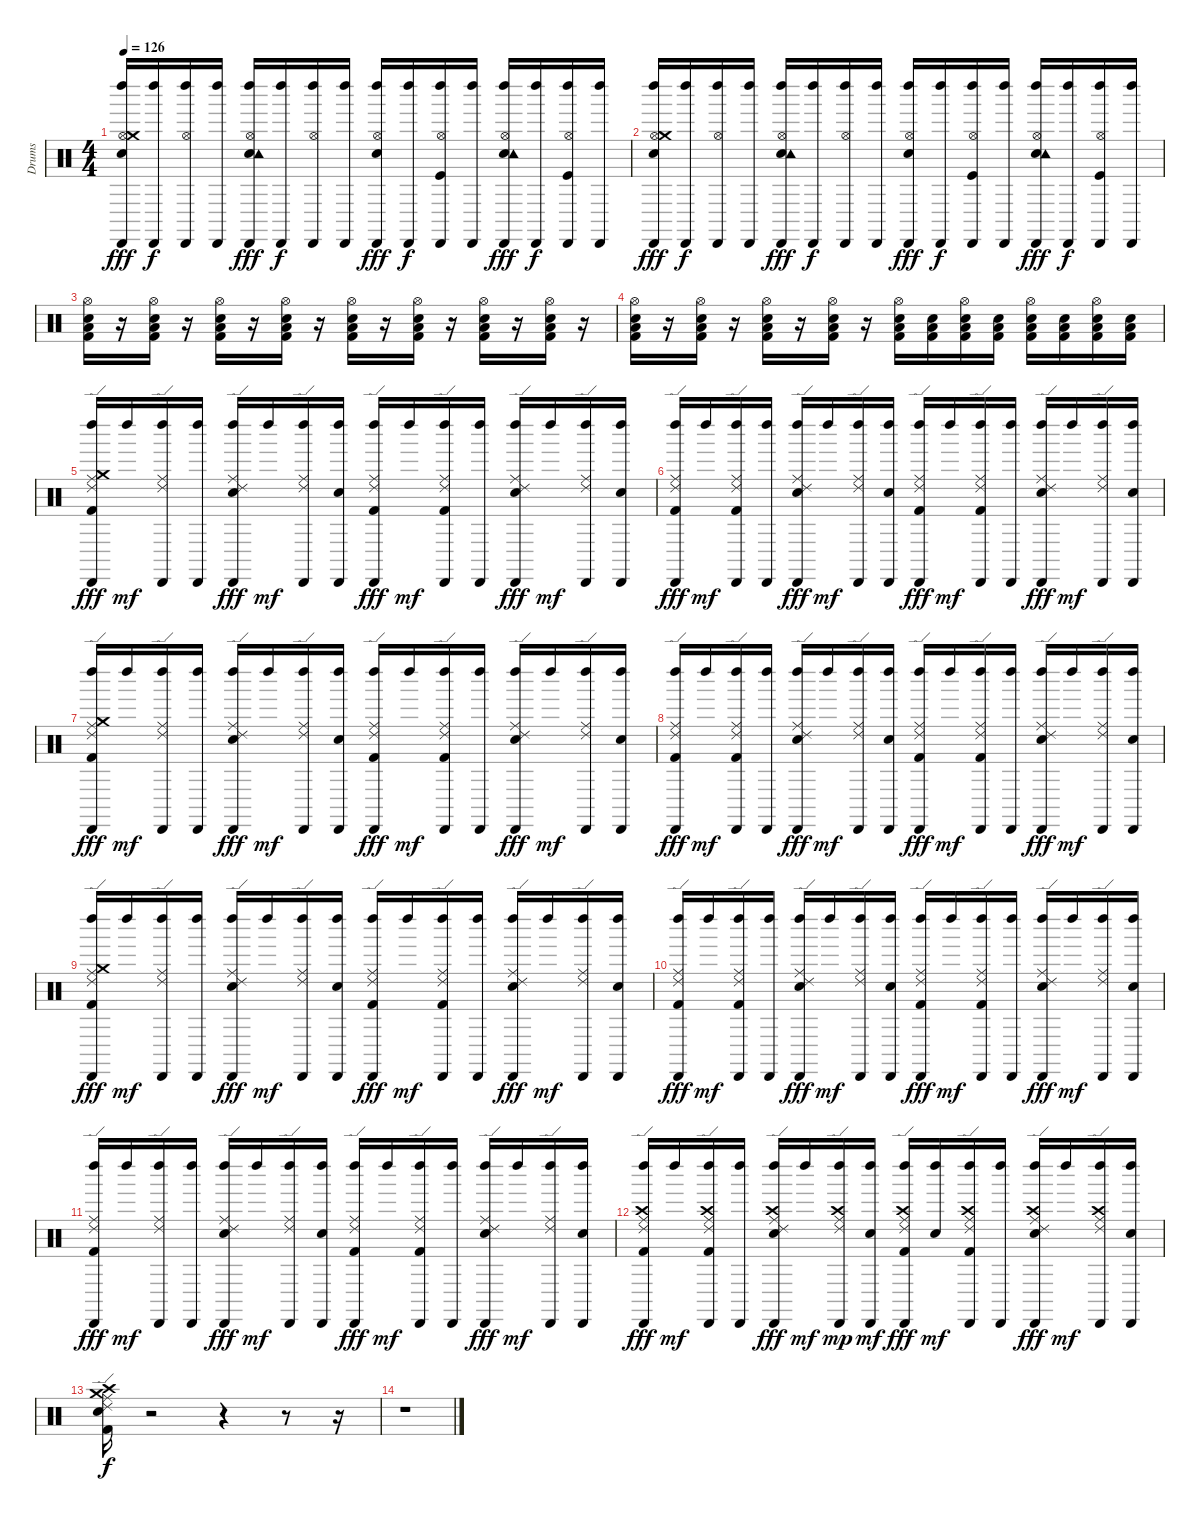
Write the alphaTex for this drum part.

\track ("Drums" "Drums") {instrument percussion}
\staff {score}
\articulation defaults
\ts (4 4)
\tempo 126
\clef neutral
\ks c
("Electric Snare (hit)" "Left Maraca (hit)" "Hi-Hat (open)" "Crash medium (hit)" "Cabasa (hit)").16{dy fff} ("Cabasa (hit)" "Left Maraca (hit)").16{dy f} ("Left Maraca (hit)" "Hi-Hat (open)" "Cabasa (hit)").16 ("Left Maraca (hit)" "Cabasa (hit)").16 ("Electric Snare (hit)" "Tambourine (hit)" "Cabasa (hit)" "Hi-Hat (open)" "Left Maraca (hit)").16{dy fff} ("Left Maraca (hit)" "Cabasa (hit)").16{dy f} ("Left Maraca (hit)" "Cabasa (hit)" "Hi-Hat (open)").16 ("Left Maraca (hit)" "Cabasa (hit)").16 ("Electric Snare (hit)" "Cabasa (hit)" "Hi-Hat (open)" "Left Maraca (hit)").16{dy fff} ("Left Maraca (hit)" "Cabasa (hit)").16{dy f} ("Kick (hit)" "Left Maraca (hit)" "Cabasa (hit)" "Hi-Hat (open)").16 ("Left Maraca (hit)" "Cabasa (hit)").16 ("Electric Snare (hit)" "Left Maraca (hit)" "Hi-Hat (open)" "Cabasa (hit)" "Tambourine (hit)").16{dy fff} ("Left Maraca (hit)" "Cabasa (hit)").16{dy f} ("Kick (hit)" "Hi-Hat (open)" "Cabasa (hit)" "Left Maraca (hit)").16 ("Left Maraca (hit)" "Cabasa (hit)").16 |
("Electric Snare (hit)" "Left Maraca (hit)" "Hi-Hat (open)" "Crash medium (hit)" "Cabasa (hit)").16{dy fff} ("Cabasa (hit)" "Left Maraca (hit)").16{dy f} ("Left Maraca (hit)" "Hi-Hat (open)" "Cabasa (hit)").16 ("Left Maraca (hit)" "Cabasa (hit)").16 ("Electric Snare (hit)" "Tambourine (hit)" "Cabasa (hit)" "Hi-Hat (open)" "Left Maraca (hit)").16{dy fff} ("Left Maraca (hit)" "Cabasa (hit)").16{dy f} ("Left Maraca (hit)" "Cabasa (hit)" "Hi-Hat (open)").16 ("Left Maraca (hit)" "Cabasa (hit)").16 ("Electric Snare (hit)" "Cabasa (hit)" "Hi-Hat (open)" "Left Maraca (hit)").16{dy fff} ("Left Maraca (hit)" "Cabasa (hit)").16{dy f} ("Kick (hit)" "Left Maraca (hit)" "Cabasa (hit)" "Hi-Hat (open)").16 ("Left Maraca (hit)" "Cabasa (hit)").16 ("Electric Snare (hit)" "Left Maraca (hit)" "Hi-Hat (open)" "Cabasa (hit)" "Tambourine (hit)").16{dy fff} ("Left Maraca (hit)" "Cabasa (hit)").16{dy f} ("Kick (hit)" "Hi-Hat (open)" "Cabasa (hit)" "Left Maraca (hit)").16 ("Left Maraca (hit)" "Cabasa (hit)").16 |
("Electric Snare (hit)" "Kick (hit) 2" "Hi-Hat (open)" "Low Tom (hit)").16 r.16 ("Kick (hit) 2" "Hi-Hat (open)" "Electric Snare (hit)" "Low Tom (hit)").16{volume 8} r.16 ("Electric Snare (hit)" "Kick (hit) 2" "Low Tom (hit)" "Hi-Hat (open)").16{volume 8} r.16 ("Hi-Hat (open)" "Kick (hit) 2" "Low Tom (hit)" "Electric Snare (hit)").16{volume 8} r.16 ("Hi-Hat (open)" "Low Tom (hit)" "Electric Snare (hit)" "Kick (hit) 2").16{volume 9} r.16 ("Low Tom (hit)" "Electric Snare (hit)" "Kick (hit) 2" "Hi-Hat (open)").16{volume 9} r.16 ("Kick (hit) 2" "Hi-Hat (open)" "Low Tom (hit)" "Electric Snare (hit)").16{volume 9} r.16 ("Electric Snare (hit)" "Kick (hit) 2" "Hi-Hat (open)" "Low Tom (hit)").16{volume 10} r.16 |
("Electric Snare (hit)" "Kick (hit) 2" "Hi-Hat (open)" "Low Tom (hit)").16{volume 10} r.16 ("Kick (hit) 2" "Hi-Hat (open)" "Electric Snare (hit)" "Low Tom (hit)").16{volume 10} r.16 ("Electric Snare (hit)" "Kick (hit) 2" "Low Tom (hit)" "Hi-Hat (open)").16{volume 11} r.16 ("Hi-Hat (open)" "Kick (hit) 2" "Low Tom (hit)" "Electric Snare (hit)").16{volume 11} r.16 ("Hi-Hat (open)" "Low Tom (hit)" "Electric Snare (hit)" "Kick (hit) 2").16{volume 11} ("Low Tom (hit)" "Kick (hit) 2" "Electric Snare (hit)").16{volume 11} ("Low Tom (hit)" "Electric Snare (hit)" "Kick (hit) 2" "Hi-Hat (open)").16{volume 12} ("Low Tom (hit)" "Kick (hit) 2" "Electric Snare (hit)").16{volume 12} ("Kick (hit) 2" "Hi-Hat (open)" "Low Tom (hit)" "Electric Snare (hit)").16{volume 12} ("Low Tom (hit)" "Kick (hit) 2" "Electric Snare (hit)").16{volume 12} ("Electric Snare (hit)" "Kick (hit) 2" "Hi-Hat (open)" "Low Tom (hit)").16{volume 12} ("Low Tom (hit)" "Kick (hit) 2" "Electric Snare (hit)").16{volume 12} |
("Crash medium (hit)" "Cabasa (hit)" "Kick (hit) 2" "Left Maraca (hit)" "Ride (middle)" "Ride (edge) 2").16{dy fff volume 12} "Left Maraca (hit)".16{dy mf} ("Cabasa (hit)" "Left Maraca (hit)" "Ride (edge) 2" "Ride (middle)").16 ("Cabasa (hit)" "Left Maraca (hit)").16 ("Left Maraca (hit)" "Ride (edge) 2" "Ride (middle)" "Cabasa (hit)" "Electric Snare (hit)").16{dy fff} "Left Maraca (hit)".16{dy mf} ("Ride (edge) 2" "Cabasa (hit)" "Left Maraca (hit)" "Ride (middle)").16 ("Electric Snare (hit)" "Cabasa (hit)" "Left Maraca (hit)").16 ("Kick (hit) 2" "Cabasa (hit)" "Ride (middle)" "Left Maraca (hit)" "Ride (edge) 2").16{dy fff} "Left Maraca (hit)".16{dy mf} ("Cabasa (hit)" "Ride (middle)" "Ride (edge) 2" "Left Maraca (hit)" "Kick (hit) 2").16 ("Left Maraca (hit)" "Cabasa (hit)").16 ("Ride (edge) 2" "Electric Snare (hit)" "Left Maraca (hit)" "Cabasa (hit)" "Ride (middle)").16{dy fff} "Left Maraca (hit)".16{dy mf} ("Left Maraca (hit)" "Cabasa (hit)" "Ride (middle)" "Ride (edge) 2").16 ("Left Maraca (hit)" "Cabasa (hit)" "Electric Snare (hit)").16 |
("Cabasa (hit)" "Kick (hit) 2" "Left Maraca (hit)" "Ride (middle)" "Ride (edge) 2").16{dy fff} "Left Maraca (hit)".16{dy mf} ("Kick (hit) 2" "Cabasa (hit)" "Left Maraca (hit)" "Ride (edge) 2" "Ride (middle)").16 ("Cabasa (hit)" "Left Maraca (hit)").16 ("Left Maraca (hit)" "Ride (edge) 2" "Ride (middle)" "Cabasa (hit)" "Electric Snare (hit)").16{dy fff} "Left Maraca (hit)".16{dy mf} ("Ride (edge) 2" "Cabasa (hit)" "Left Maraca (hit)" "Ride (middle)").16 ("Electric Snare (hit)" "Cabasa (hit)" "Left Maraca (hit)").16 ("Kick (hit) 2" "Cabasa (hit)" "Ride (middle)" "Left Maraca (hit)" "Ride (edge) 2").16{dy fff} "Left Maraca (hit)".16{dy mf} ("Cabasa (hit)" "Ride (middle)" "Ride (edge) 2" "Left Maraca (hit)" "Kick (hit) 2").16 ("Left Maraca (hit)" "Cabasa (hit)").16 ("Ride (edge) 2" "Electric Snare (hit)" "Left Maraca (hit)" "Cabasa (hit)" "Ride (middle)").16{dy fff} "Left Maraca (hit)".16{dy mf} ("Left Maraca (hit)" "Cabasa (hit)" "Ride (middle)" "Ride (edge) 2").16 ("Left Maraca (hit)" "Cabasa (hit)" "Electric Snare (hit)").16 |
("Crash medium (hit)" "Cabasa (hit)" "Kick (hit) 2" "Left Maraca (hit)" "Ride (middle)" "Ride (edge) 2").16{dy fff} "Left Maraca (hit)".16{dy mf} ("Cabasa (hit)" "Left Maraca (hit)" "Ride (edge) 2" "Ride (middle)").16 ("Cabasa (hit)" "Left Maraca (hit)").16 ("Left Maraca (hit)" "Ride (edge) 2" "Ride (middle)" "Cabasa (hit)" "Electric Snare (hit)").16{dy fff} "Left Maraca (hit)".16{dy mf} ("Ride (edge) 2" "Cabasa (hit)" "Left Maraca (hit)" "Ride (middle)").16 ("Electric Snare (hit)" "Cabasa (hit)" "Left Maraca (hit)").16 ("Kick (hit) 2" "Cabasa (hit)" "Ride (middle)" "Left Maraca (hit)" "Ride (edge) 2").16{dy fff} "Left Maraca (hit)".16{dy mf} ("Cabasa (hit)" "Ride (middle)" "Ride (edge) 2" "Left Maraca (hit)" "Kick (hit) 2").16 ("Left Maraca (hit)" "Cabasa (hit)").16 ("Ride (edge) 2" "Electric Snare (hit)" "Left Maraca (hit)" "Cabasa (hit)" "Ride (middle)").16{dy fff} "Left Maraca (hit)".16{dy mf} ("Left Maraca (hit)" "Cabasa (hit)" "Ride (middle)" "Ride (edge) 2").16 ("Left Maraca (hit)" "Cabasa (hit)" "Electric Snare (hit)").16 |
("Cabasa (hit)" "Kick (hit) 2" "Left Maraca (hit)" "Ride (middle)" "Ride (edge) 2").16{dy fff} "Left Maraca (hit)".16{dy mf} ("Kick (hit) 2" "Cabasa (hit)" "Left Maraca (hit)" "Ride (edge) 2" "Ride (middle)").16 ("Cabasa (hit)" "Left Maraca (hit)").16 ("Left Maraca (hit)" "Ride (edge) 2" "Ride (middle)" "Cabasa (hit)" "Electric Snare (hit)").16{dy fff} "Left Maraca (hit)".16{dy mf} ("Ride (edge) 2" "Cabasa (hit)" "Left Maraca (hit)" "Ride (middle)").16 ("Electric Snare (hit)" "Cabasa (hit)" "Left Maraca (hit)").16 ("Kick (hit) 2" "Cabasa (hit)" "Ride (middle)" "Left Maraca (hit)" "Ride (edge) 2").16{dy fff} "Left Maraca (hit)".16{dy mf} ("Cabasa (hit)" "Ride (middle)" "Ride (edge) 2" "Left Maraca (hit)" "Kick (hit) 2").16 ("Left Maraca (hit)" "Cabasa (hit)").16 ("Ride (edge) 2" "Electric Snare (hit)" "Left Maraca (hit)" "Cabasa (hit)" "Ride (middle)").16{dy fff} "Left Maraca (hit)".16{dy mf} ("Left Maraca (hit)" "Cabasa (hit)" "Ride (middle)" "Ride (edge) 2").16 ("Left Maraca (hit)" "Cabasa (hit)" "Electric Snare (hit)").16 |
("Crash medium (hit)" "Cabasa (hit)" "Kick (hit) 2" "Left Maraca (hit)" "Ride (middle)" "Ride (edge) 2").16{dy fff} "Left Maraca (hit)".16{dy mf} ("Cabasa (hit)" "Left Maraca (hit)" "Ride (edge) 2" "Ride (middle)").16 ("Cabasa (hit)" "Left Maraca (hit)").16 ("Left Maraca (hit)" "Ride (edge) 2" "Ride (middle)" "Cabasa (hit)" "Electric Snare (hit)").16{dy fff} "Left Maraca (hit)".16{dy mf} ("Ride (edge) 2" "Cabasa (hit)" "Left Maraca (hit)" "Ride (middle)").16 ("Electric Snare (hit)" "Cabasa (hit)" "Left Maraca (hit)").16 ("Kick (hit) 2" "Cabasa (hit)" "Ride (middle)" "Left Maraca (hit)" "Ride (edge) 2").16{dy fff} "Left Maraca (hit)".16{dy mf} ("Cabasa (hit)" "Ride (middle)" "Ride (edge) 2" "Left Maraca (hit)" "Kick (hit) 2").16 ("Left Maraca (hit)" "Cabasa (hit)").16 ("Ride (edge) 2" "Electric Snare (hit)" "Left Maraca (hit)" "Cabasa (hit)" "Ride (middle)").16{dy fff} "Left Maraca (hit)".16{dy mf} ("Left Maraca (hit)" "Cabasa (hit)" "Ride (middle)" "Ride (edge) 2").16 ("Left Maraca (hit)" "Cabasa (hit)" "Electric Snare (hit)").16 |
("Cabasa (hit)" "Kick (hit) 2" "Left Maraca (hit)" "Ride (middle)" "Ride (edge) 2").16{dy fff} "Left Maraca (hit)".16{dy mf} ("Kick (hit) 2" "Cabasa (hit)" "Left Maraca (hit)" "Ride (edge) 2" "Ride (middle)").16 ("Cabasa (hit)" "Left Maraca (hit)").16 ("Left Maraca (hit)" "Ride (edge) 2" "Ride (middle)" "Cabasa (hit)" "Electric Snare (hit)").16{dy fff} "Left Maraca (hit)".16{dy mf} ("Ride (edge) 2" "Cabasa (hit)" "Left Maraca (hit)" "Ride (middle)").16 ("Electric Snare (hit)" "Cabasa (hit)" "Left Maraca (hit)").16 ("Kick (hit) 2" "Cabasa (hit)" "Ride (middle)" "Left Maraca (hit)" "Ride (edge) 2").16{dy fff} "Left Maraca (hit)".16{dy mf} ("Cabasa (hit)" "Ride (middle)" "Ride (edge) 2" "Left Maraca (hit)" "Kick (hit) 2").16 ("Left Maraca (hit)" "Cabasa (hit)").16 ("Ride (edge) 2" "Electric Snare (hit)" "Left Maraca (hit)" "Cabasa (hit)" "Ride (middle)").16{dy fff} "Left Maraca (hit)".16{dy mf} ("Left Maraca (hit)" "Cabasa (hit)" "Ride (middle)" "Ride (edge) 2").16 ("Left Maraca (hit)" "Cabasa (hit)" "Electric Snare (hit)").16 |
("Cabasa (hit)" "Kick (hit) 2" "Left Maraca (hit)" "Ride (middle)" "Ride (edge) 2").16{dy fff} "Left Maraca (hit)".16{dy mf} ("Cabasa (hit)" "Left Maraca (hit)" "Ride (edge) 2" "Ride (middle)").16 ("Cabasa (hit)" "Left Maraca (hit)").16 ("Left Maraca (hit)" "Ride (edge) 2" "Ride (middle)" "Cabasa (hit)" "Electric Snare (hit)").16{dy fff} "Left Maraca (hit)".16{dy mf} ("Ride (edge) 2" "Cabasa (hit)" "Left Maraca (hit)" "Ride (middle)").16 ("Electric Snare (hit)" "Cabasa (hit)" "Left Maraca (hit)").16 ("Kick (hit) 2" "Cabasa (hit)" "Ride (middle)" "Left Maraca (hit)" "Ride (edge) 2").16{dy fff} "Left Maraca (hit)".16{dy mf} ("Cabasa (hit)" "Ride (middle)" "Ride (edge) 2" "Left Maraca (hit)" "Kick (hit) 2").16 ("Left Maraca (hit)" "Cabasa (hit)").16 ("Ride (edge) 2" "Electric Snare (hit)" "Left Maraca (hit)" "Cabasa (hit)" "Ride (middle)").16{dy fff} "Left Maraca (hit)".16{dy mf} ("Left Maraca (hit)" "Cabasa (hit)" "Ride (middle)" "Ride (edge) 2").16 ("Left Maraca (hit)" "Cabasa (hit)" "Electric Snare (hit)").16 |
("Crash high (hit)" "Cabasa (hit)" "Kick (hit) 2" "Left Maraca (hit)" "Ride (middle)" "Ride (edge) 2").16{dy fff} "Left Maraca (hit)".16{dy mf} ("Crash high (hit)" "Kick (hit) 2" "Cabasa (hit)" "Left Maraca (hit)" "Ride (edge) 2" "Ride (middle)").16 ("Cabasa (hit)" "Left Maraca (hit)").16 ("Crash high (hit)" "Left Maraca (hit)" "Ride (edge) 2" "Ride (middle)" "Cabasa (hit)" "Electric Snare (hit)").16{dy fff} "Left Maraca (hit)".16{dy mf} ("Ride (edge) 2" "Cabasa (hit)" "Left Maraca (hit)" "Ride (middle)" "Crash high (hit)").16{dy mp} ("Electric Snare (hit)" "Cabasa (hit)" "Left Maraca (hit)").16{dy mf} ("Crash high (hit)" "Kick (hit) 2" "Cabasa (hit)" "Ride (middle)" "Left Maraca (hit)" "Ride (edge) 2").16{dy fff} ("Electric Snare (hit)" "Left Maraca (hit)").16{dy mf} ("Crash high (hit)" "Cabasa (hit)" "Ride (middle)" "Ride (edge) 2" "Left Maraca (hit)" "Kick (hit) 2").16 ("Left Maraca (hit)" "Cabasa (hit)").16 ("Crash high (hit)" "Ride (edge) 2" "Electric Snare (hit)" "Left Maraca (hit)" "Cabasa (hit)" "Ride (middle)").16{dy fff} "Left Maraca (hit)".16{dy mf} ("Crash high (hit)" "Left Maraca (hit)" "Cabasa (hit)" "Ride (middle)" "Ride (edge) 2").16 ("Left Maraca (hit)" "Cabasa (hit)" "Electric Snare (hit)").16 |
("Ride (edge) 2" "Kick (hit) 2" "Electric Snare (hit)" "Crash high (hit)" "Ride (middle)" "Crash medium (hit)").16{dy f} r.2 r.4 r.8 r.16 |
r.1
